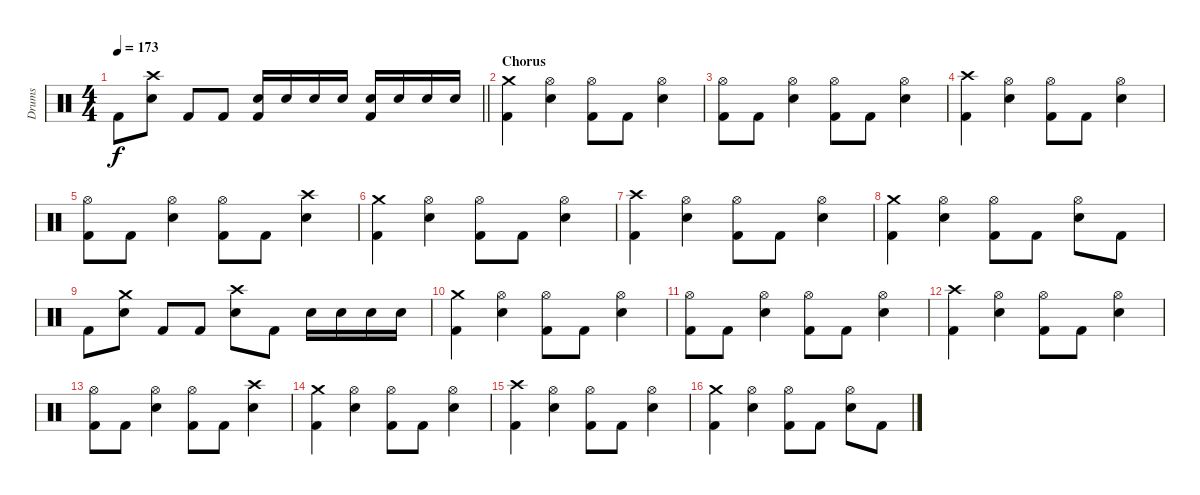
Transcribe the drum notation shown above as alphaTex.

\track ("Drums" "Drums") {instrument percussion}
\staff {score}
\articulation defaults
\ts (4 4)
\tempo 173
\clef neutral
\barLineRight lightlight
\ks c "Kick (hit) 2".8{dy f}
("Crash high (hit)" "Electric Snare (hit)").8 "Kick (hit) 2".8 "Kick (hit) 2".8 ("Electric Snare (hit)" "Kick (hit) 2").16 "Electric Snare (hit)".16 "Electric Snare (hit)".16 "Electric Snare (hit)".16 ("Electric Snare (hit)" "Kick (hit) 2").16 "Electric Snare (hit)".16 "Electric Snare (hit)".16 "Electric Snare (hit)".16 |
\section ("" "Chorus")
("Crash medium (hit)" "Kick (hit) 2").4 ("Hi-Hat (open)" "Electric Snare (hit)").4 ("Hi-Hat (open)" "Kick (hit) 2").8 "Kick (hit) 2".8 ("Hi-Hat (open)" "Electric Snare (hit)").4 |
("Hi-Hat (open)" "Kick (hit) 2").8 "Kick (hit) 2".8 ("Hi-Hat (open)" "Electric Snare (hit)").4 ("Hi-Hat (open)" "Kick (hit) 2").8 "Kick (hit) 2".8 ("Hi-Hat (open)" "Electric Snare (hit)").4 |
("Crash high (hit)" "Kick (hit) 2").4 ("Hi-Hat (open)" "Electric Snare (hit)").4 ("Hi-Hat (open)" "Kick (hit) 2").8 "Kick (hit) 2".8 ("Hi-Hat (open)" "Electric Snare (hit)").4 |
("Hi-Hat (open)" "Kick (hit) 2").8 "Kick (hit) 2".8 ("Hi-Hat (open)" "Electric Snare (hit)").4 ("Hi-Hat (open)" "Kick (hit) 2").8 "Kick (hit) 2".8 ("Crash high (hit)" "Electric Snare (hit)").4 |
("Crash medium (hit)" "Kick (hit) 2").4 ("Hi-Hat (open)" "Electric Snare (hit)").4 ("Hi-Hat (open)" "Kick (hit) 2").8 "Kick (hit) 2".8 ("Hi-Hat (open)" "Electric Snare (hit)").4 |
("Crash high (hit)" "Kick (hit) 2").4 ("Hi-Hat (open)" "Electric Snare (hit)").4 ("Hi-Hat (open)" "Kick (hit) 2").8 "Kick (hit) 2".8 ("Hi-Hat (open)" "Electric Snare (hit)").4 |
("Crash medium (hit)" "Kick (hit) 2").4 ("Hi-Hat (open)" "Electric Snare (hit)").4 ("Hi-Hat (open)" "Kick (hit) 2").8 "Kick (hit) 2".8 ("Hi-Hat (open)" "Electric Snare (hit)").8 "Kick (hit) 2".8 |
"Kick (hit) 2".8 ("Crash medium (hit)" "Electric Snare (hit)").8 "Kick (hit) 2".8 "Kick (hit) 2".8 ("Crash high (hit)" "Electric Snare (hit)").8 "Kick (hit) 2".8 "Electric Snare (hit)".16 "Electric Snare (hit)".16 "Electric Snare (hit)".16 "Electric Snare (hit)".16 |
("Crash medium (hit)" "Kick (hit) 2").4 ("Hi-Hat (open)" "Electric Snare (hit)").4 ("Hi-Hat (open)" "Kick (hit) 2").8 "Kick (hit) 2".8 ("Hi-Hat (open)" "Electric Snare (hit)").4 |
("Hi-Hat (open)" "Kick (hit) 2").8 "Kick (hit) 2".8 ("Hi-Hat (open)" "Electric Snare (hit)").4 ("Hi-Hat (open)" "Kick (hit) 2").8 "Kick (hit) 2".8 ("Hi-Hat (open)" "Electric Snare (hit)").4 |
("Crash high (hit)" "Kick (hit) 2").4 ("Hi-Hat (open)" "Electric Snare (hit)").4 ("Hi-Hat (open)" "Kick (hit) 2").8 "Kick (hit) 2".8 ("Hi-Hat (open)" "Electric Snare (hit)").4 |
("Hi-Hat (open)" "Kick (hit) 2").8 "Kick (hit) 2".8 ("Hi-Hat (open)" "Electric Snare (hit)").4 ("Hi-Hat (open)" "Kick (hit) 2").8 "Kick (hit) 2".8 ("Crash high (hit)" "Electric Snare (hit)").4 |
("Crash medium (hit)" "Kick (hit) 2").4 ("Hi-Hat (open)" "Electric Snare (hit)").4 ("Hi-Hat (open)" "Kick (hit) 2").8 "Kick (hit) 2".8 ("Hi-Hat (open)" "Electric Snare (hit)").4 |
("Crash high (hit)" "Kick (hit) 2").4 ("Hi-Hat (open)" "Electric Snare (hit)").4 ("Hi-Hat (open)" "Kick (hit) 2").8 "Kick (hit) 2".8 ("Hi-Hat (open)" "Electric Snare (hit)").4 |
("Crash medium (hit)" "Kick (hit) 2").4 ("Hi-Hat (open)" "Electric Snare (hit)").4 ("Hi-Hat (open)" "Kick (hit) 2").8 "Kick (hit) 2".8 ("Hi-Hat (open)" "Electric Snare (hit)").8 "Kick (hit) 2".8
